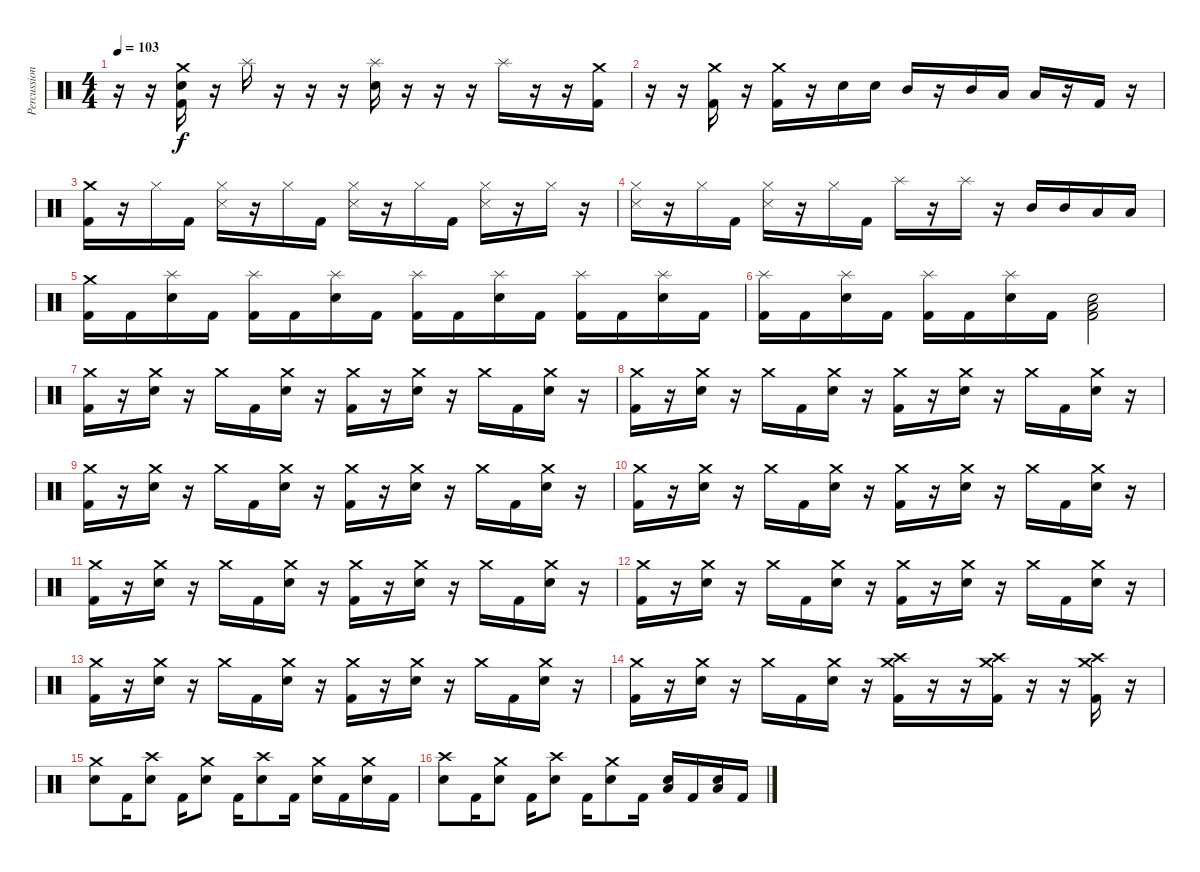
\track ("Percussion" "Percussion") {instrument percussion}
\staff {score}
\articulation defaults
\ts (4 4)
\tempo 103
\clef neutral
\ks c
r.16{dy f} r.16 ("Crash medium (hit)" "Electric Snare (hit)" "Kick (hit) 2").16 r.16 "Splash (hit)".16 r.16 r.16 r.16 ("Splash (hit)" "Electric Snare (hit)").16 r.16 r.16 r.16 "Splash (hit)".16 r.16 r.16 ("Crash medium (hit)" "Kick (hit) 2").16 |
r.16 r.16 ("Crash medium (hit)" "Kick (hit) 2").16 r.16 ("Crash medium (hit)" "Kick (hit) 2").16 r.16 "Electric Snare (hit)".16 "Electric Snare (hit)".16 "Mid Tom (hit)".16 r.16 "Mid Tom (hit)".16 "Low Tom (hit)".16 "Low Tom (hit)".16 r.16 "Kick (hit) 2".16 r.16 |
("Crash medium (hit)" "Kick (hit) 2").16 r.16 "Hi-Hat (closed)".16 "Kick (hit) 2".16 ("Hi-Hat (closed)" "Snare (side stick) 3").16 r.16 "Hi-Hat (closed)".16 "Kick (hit) 2".16 ("Hi-Hat (closed)" "Snare (side stick) 3").16 r.16 "Hi-Hat (closed)".16 "Kick (hit) 2".16 ("Hi-Hat (closed)" "Snare (side stick) 3").16 r.16 "Hi-Hat (closed)".16 r.16 |
("Hi-Hat (closed)" "Snare (side stick) 3").16 r.16 "Hi-Hat (closed)".16 "Kick (hit) 2".16 ("Hi-Hat (closed)" "Snare (side stick) 3").16 r.16 "Hi-Hat (closed)".16 "Kick (hit) 2".16 "Splash (hit)".16 r.16 "Splash (hit)".16 r.16 "Mid Tom (hit)".16 "Mid Tom (hit)".16 "Low Tom (hit)".16 "Low Tom (hit)".16 |
("Crash medium (hit)" "Kick (hit) 2").16 "Kick (hit) 2".16 ("Splash (hit)" "Electric Snare (hit)").16 "Kick (hit) 2".16 ("Splash (hit)" "Kick (hit) 2").16 "Kick (hit) 2".16 ("Splash (hit)" "Electric Snare (hit)").16 "Kick (hit) 2".16 ("Splash (hit)" "Kick (hit) 2").16 "Kick (hit) 2".16 ("Splash (hit)" "Electric Snare (hit)").16 "Kick (hit) 2".16 ("Splash (hit)" "Kick (hit) 2").16 "Kick (hit) 2".16 ("Splash (hit)" "Electric Snare (hit)").16 "Kick (hit) 2".16 |
("Splash (hit)" "Kick (hit) 2").16 "Kick (hit) 2".16 ("Splash (hit)" "Electric Snare (hit)").16 "Kick (hit) 2".16 ("Splash (hit)" "Kick (hit) 2").16 "Kick (hit) 2".16 ("Splash (hit)" "Electric Snare (hit)").16 "Kick (hit) 2".16 ("Low Tom (hit)" "Electric Snare (hit)" "Kick (hit) 2").2 |
("Crash medium (hit)" "Kick (hit) 2").16 r.16 ("Crash medium (hit)" "Electric Snare (hit)").16 r.16 "Crash medium (hit)".16 "Kick (hit) 2".16 ("Crash medium (hit)" "Electric Snare (hit)").16 r.16 ("Crash medium (hit)" "Kick (hit) 2").16 r.16 ("Crash medium (hit)" "Electric Snare (hit)").16 r.16 "Crash medium (hit)".16 "Kick (hit) 2".16 ("Crash medium (hit)" "Electric Snare (hit)").16 r.16 |
("Crash medium (hit)" "Kick (hit) 2").16 r.16 ("Crash medium (hit)" "Electric Snare (hit)").16 r.16 "Crash medium (hit)".16 "Kick (hit) 2".16 ("Crash medium (hit)" "Electric Snare (hit)").16 r.16 ("Crash medium (hit)" "Kick (hit) 2").16 r.16 ("Crash medium (hit)" "Electric Snare (hit)").16 r.16 "Crash medium (hit)".16 "Kick (hit) 2".16 ("Crash medium (hit)" "Electric Snare (hit)").16 r.16 |
("Crash medium (hit)" "Kick (hit) 2").16 r.16 ("Crash medium (hit)" "Electric Snare (hit)").16 r.16 "Crash medium (hit)".16 "Kick (hit) 2".16 ("Crash medium (hit)" "Electric Snare (hit)").16 r.16 ("Crash medium (hit)" "Kick (hit) 2").16 r.16 ("Crash medium (hit)" "Electric Snare (hit)").16 r.16 "Crash medium (hit)".16 "Kick (hit) 2".16 ("Crash medium (hit)" "Electric Snare (hit)").16 r.16 |
("Crash medium (hit)" "Kick (hit) 2").16 r.16 ("Crash medium (hit)" "Electric Snare (hit)").16 r.16 "Crash medium (hit)".16 "Kick (hit) 2".16 ("Crash medium (hit)" "Electric Snare (hit)").16 r.16 ("Crash medium (hit)" "Kick (hit) 2").16 r.16 ("Crash medium (hit)" "Electric Snare (hit)").16 r.16 "Crash medium (hit)".16 "Kick (hit) 2".16 ("Crash medium (hit)" "Electric Snare (hit)").16 r.16 |
("Crash medium (hit)" "Kick (hit) 2").16 r.16 ("Crash medium (hit)" "Electric Snare (hit)").16 r.16 "Crash medium (hit)".16 "Kick (hit) 2".16 ("Crash medium (hit)" "Electric Snare (hit)").16 r.16 ("Crash medium (hit)" "Kick (hit) 2").16 r.16 ("Crash medium (hit)" "Electric Snare (hit)").16 r.16 "Crash medium (hit)".16 "Kick (hit) 2".16 ("Crash medium (hit)" "Electric Snare (hit)").16 r.16 |
("Crash medium (hit)" "Kick (hit) 2").16 r.16 ("Crash medium (hit)" "Electric Snare (hit)").16 r.16 "Crash medium (hit)".16 "Kick (hit) 2".16 ("Crash medium (hit)" "Electric Snare (hit)").16 r.16 ("Crash medium (hit)" "Kick (hit) 2").16 r.16 ("Crash medium (hit)" "Electric Snare (hit)").16 r.16 "Crash medium (hit)".16 "Kick (hit) 2".16 ("Crash medium (hit)" "Electric Snare (hit)").16 r.16 |
("Crash medium (hit)" "Kick (hit) 2").16 r.16 ("Crash medium (hit)" "Electric Snare (hit)").16 r.16 "Crash medium (hit)".16 "Kick (hit) 2".16 ("Crash medium (hit)" "Electric Snare (hit)").16 r.16 ("Crash medium (hit)" "Kick (hit) 2").16 r.16 ("Crash medium (hit)" "Electric Snare (hit)").16 r.16 "Crash medium (hit)".16 "Kick (hit) 2".16 ("Crash medium (hit)" "Electric Snare (hit)").16 r.16 |
("Crash medium (hit)" "Kick (hit) 2").16 r.16 ("Crash medium (hit)" "Electric Snare (hit)").16 r.16 "Crash medium (hit)".16 "Kick (hit) 2".16 ("Crash medium (hit)" "Electric Snare (hit)").16 r.16 ("Crash high (hit)" "Crash medium (hit)" "Kick (hit) 2").16 r.16 r.16 ("Crash high (hit)" "Crash medium (hit)" "Kick (hit) 2").16 r.16 r.16 ("Crash high (hit)" "Crash medium (hit)" "Kick (hit) 2").16 r.16 |
("Crash medium (hit)" "Electric Snare (hit)").8 "Kick (hit) 2".16 ("Crash high (hit)" "Electric Snare (hit)").8 "Kick (hit) 2".16 ("Crash medium (hit)" "Electric Snare (hit)").8 "Kick (hit) 2".16 ("Crash high (hit)" "Electric Snare (hit)").8 "Kick (hit) 2".16 ("Crash medium (hit)" "Electric Snare (hit)").16 "Kick (hit) 2".16 ("Crash medium (hit)" "Electric Snare (hit)").16 "Kick (hit) 2".16 |
("Crash high (hit)" "Electric Snare (hit)").8 "Kick (hit) 2".16 ("Crash medium (hit)" "Electric Snare (hit)").8 "Kick (hit) 2".16 ("Crash high (hit)" "Electric Snare (hit)").8 "Kick (hit) 2".16 ("Crash medium (hit)" "Electric Snare (hit)").8 "Kick (hit) 2".16 ("Low Tom (hit)" "Electric Snare (hit)").16 "Kick (hit) 2".16 ("Low Tom (hit)" "Electric Snare (hit)").16 "Kick (hit) 2".16
